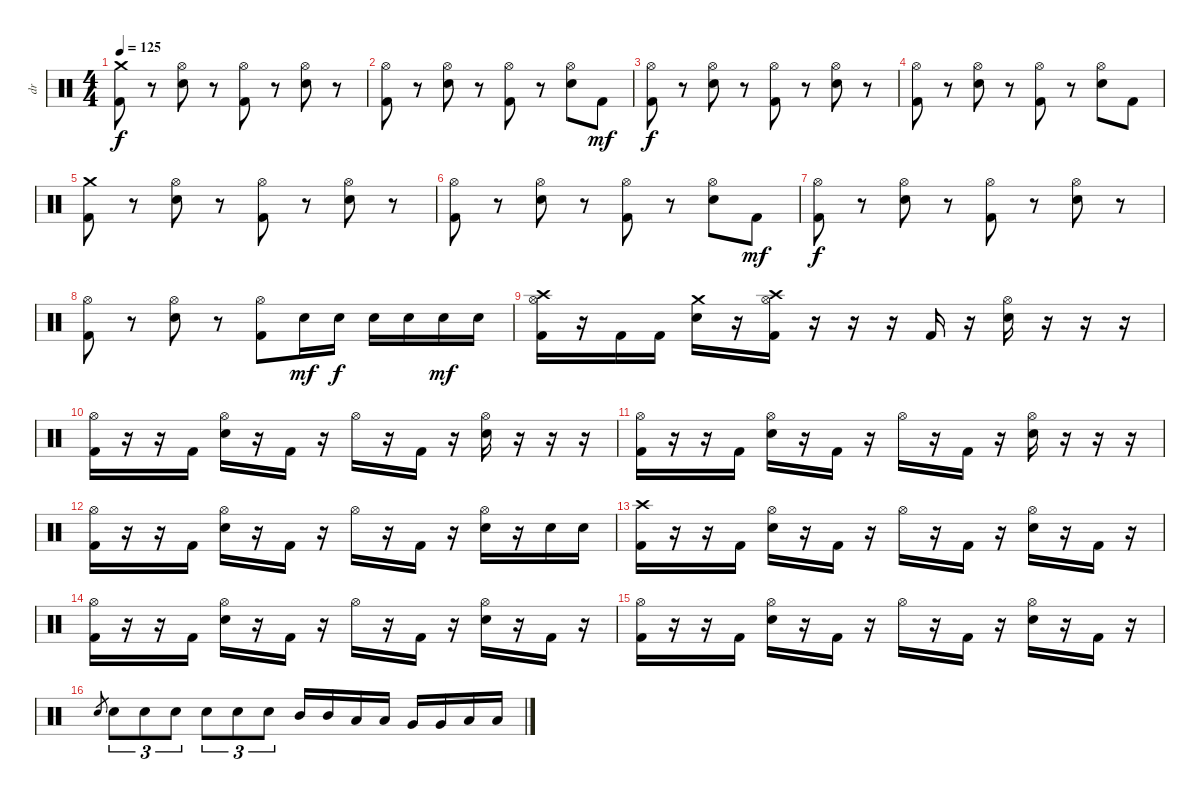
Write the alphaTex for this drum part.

\track ("dr" "dr") {instrument percussion}
\staff {score}
\articulation defaults
\ts (4 4)
\tempo 125
\clef neutral
\ks c
("Crash medium (hit)" "Kick (hit) 2").8{dy f} r.8 ("Hi-Hat (open)" "Snare (hit) 2").8 r.8 ("Hi-Hat (open)" "Kick (hit) 2").8 r.8 ("Hi-Hat (open)" "Snare (hit) 2").8 r.8 |
("Hi-Hat (open)" "Kick (hit) 2").8 r.8 ("Hi-Hat (open)" "Snare (hit) 2").8 r.8 ("Hi-Hat (open)" "Kick (hit) 2").8 r.8 ("Hi-Hat (open)" "Snare (hit) 2").8 "Kick (hit) 2".8{dy mf} |
("Hi-Hat (open)" "Kick (hit) 2").8{dy f} r.8 ("Hi-Hat (open)" "Snare (hit) 2").8 r.8 ("Hi-Hat (open)" "Kick (hit) 2").8 r.8 ("Hi-Hat (open)" "Snare (hit) 2").8 r.8 |
("Hi-Hat (open)" "Kick (hit) 2").8 r.8 ("Hi-Hat (open)" "Snare (hit) 2").8 r.8 ("Hi-Hat (open)" "Kick (hit) 2").8 r.8 ("Hi-Hat (open)" "Snare (hit) 2").8 "Kick (hit) 2".8 |
("Crash medium (hit)" "Kick (hit) 2").8 r.8 ("Hi-Hat (open)" "Snare (hit) 2").8 r.8 ("Hi-Hat (open)" "Kick (hit) 2").8 r.8 ("Hi-Hat (open)" "Snare (hit) 2").8 r.8 |
("Hi-Hat (open)" "Kick (hit) 2").8 r.8 ("Hi-Hat (open)" "Snare (hit) 2").8 r.8 ("Hi-Hat (open)" "Kick (hit) 2").8 r.8 ("Hi-Hat (open)" "Snare (hit) 2").8 "Kick (hit) 2".8{dy mf} |
("Hi-Hat (open)" "Kick (hit) 2").8{dy f} r.8 ("Hi-Hat (open)" "Snare (hit) 2").8 r.8 ("Hi-Hat (open)" "Kick (hit) 2").8 r.8 ("Hi-Hat (open)" "Snare (hit) 2").8 r.8 |
("Hi-Hat (open)" "Kick (hit) 2").8 r.8 ("Hi-Hat (open)" "Snare (hit) 2").8 r.8 ("Hi-Hat (open)" "Kick (hit) 2").8 "Snare (hit) 2".16{dy mf} "Snare (hit) 2".16{dy f} "Snare (hit) 2".16 "Snare (hit) 2".16 "Snare (hit) 2".16{dy mf} "Snare (hit) 2".16 |
("Crash high (hit)" "Hi-Hat (open)" "Kick (hit) 2").16 r.16 "Kick (hit) 2".16 "Kick (hit) 2".16 ("Crash medium (hit)" "Snare (hit) 2").16 r.16 ("Crash high (hit)" "Hi-Hat (open)" "Kick (hit) 2").16 r.16 r.16 r.16 "Kick (hit) 2".16 r.16 ("Hi-Hat (open)" "Snare (hit) 2").16 r.16 r.16 r.16 |
("Hi-Hat (open)" "Kick (hit) 2").16 r.16 r.16 "Kick (hit) 2".16 ("Hi-Hat (open)" "Snare (hit) 2").16 r.16 "Kick (hit) 2".16 r.16 "Hi-Hat (open)".16 r.16 "Kick (hit) 2".16 r.16 ("Hi-Hat (open)" "Snare (hit) 2").16 r.16 r.16 r.16 |
("Hi-Hat (open)" "Kick (hit) 2").16 r.16 r.16 "Kick (hit) 2".16 ("Hi-Hat (open)" "Snare (hit) 2").16 r.16 "Kick (hit) 2".16 r.16 "Hi-Hat (open)".16 r.16 "Kick (hit) 2".16 r.16 ("Hi-Hat (open)" "Snare (hit) 2").16 r.16 r.16 r.16 |
("Hi-Hat (open)" "Kick (hit) 2").16 r.16 r.16 "Kick (hit) 2".16 ("Hi-Hat (open)" "Snare (hit) 2").16 r.16 "Kick (hit) 2".16 r.16 "Hi-Hat (open)".16 r.16 "Kick (hit) 2".16 r.16 ("Hi-Hat (open)" "Snare (hit) 2").16 r.16 "Snare (hit) 2".16 "Snare (hit) 2".16 |
("Crash high (hit)" "Kick (hit) 2").16 r.16 r.16 "Kick (hit) 2".16 ("Hi-Hat (open)" "Snare (hit) 2").16 r.16 "Kick (hit) 2".16 r.16 "Hi-Hat (open)".16 r.16 "Kick (hit) 2".16 r.16 ("Hi-Hat (open)" "Snare (hit) 2").16 r.16 "Kick (hit) 2".16 r.16 |
("Hi-Hat (open)" "Kick (hit) 2").16 r.16 r.16 "Kick (hit) 2".16 ("Hi-Hat (open)" "Snare (hit) 2").16 r.16 "Kick (hit) 2".16 r.16 "Hi-Hat (open)".16 r.16 "Kick (hit) 2".16 r.16 ("Hi-Hat (open)" "Snare (hit) 2").16 r.16 "Kick (hit) 2".16 r.16 |
("Hi-Hat (open)" "Kick (hit) 2").16 r.16 r.16 "Kick (hit) 2".16 ("Hi-Hat (open)" "Snare (hit) 2").16 r.16 "Kick (hit) 2".16 r.16 "Hi-Hat (open)".16 r.16 "Kick (hit) 2".16 r.16 ("Hi-Hat (open)" "Snare (hit) 2").16 r.16 "Kick (hit) 2".16 r.16 |
"Snare (hit) 2".8{gr} "Snare (hit) 2".8{tu (3 2)} "Snare (hit) 2".8{tu (3 2)} "Snare (hit) 2".8{tu (3 2)} "Snare (hit) 2".8{tu (3 2)} "Snare (hit) 2".8{tu (3 2)} "Snare (hit) 2".8{tu (3 2)} "Mid Tom (hit)".16 "Mid Tom (hit)".16 "Low Tom (hit)".16 "Low Tom (hit)".16 "Very Low Tom (hit)".16 "Very Low Tom (hit)".16 "Low Floor Tom (hit)".16 "Low Floor Tom (hit)".16
